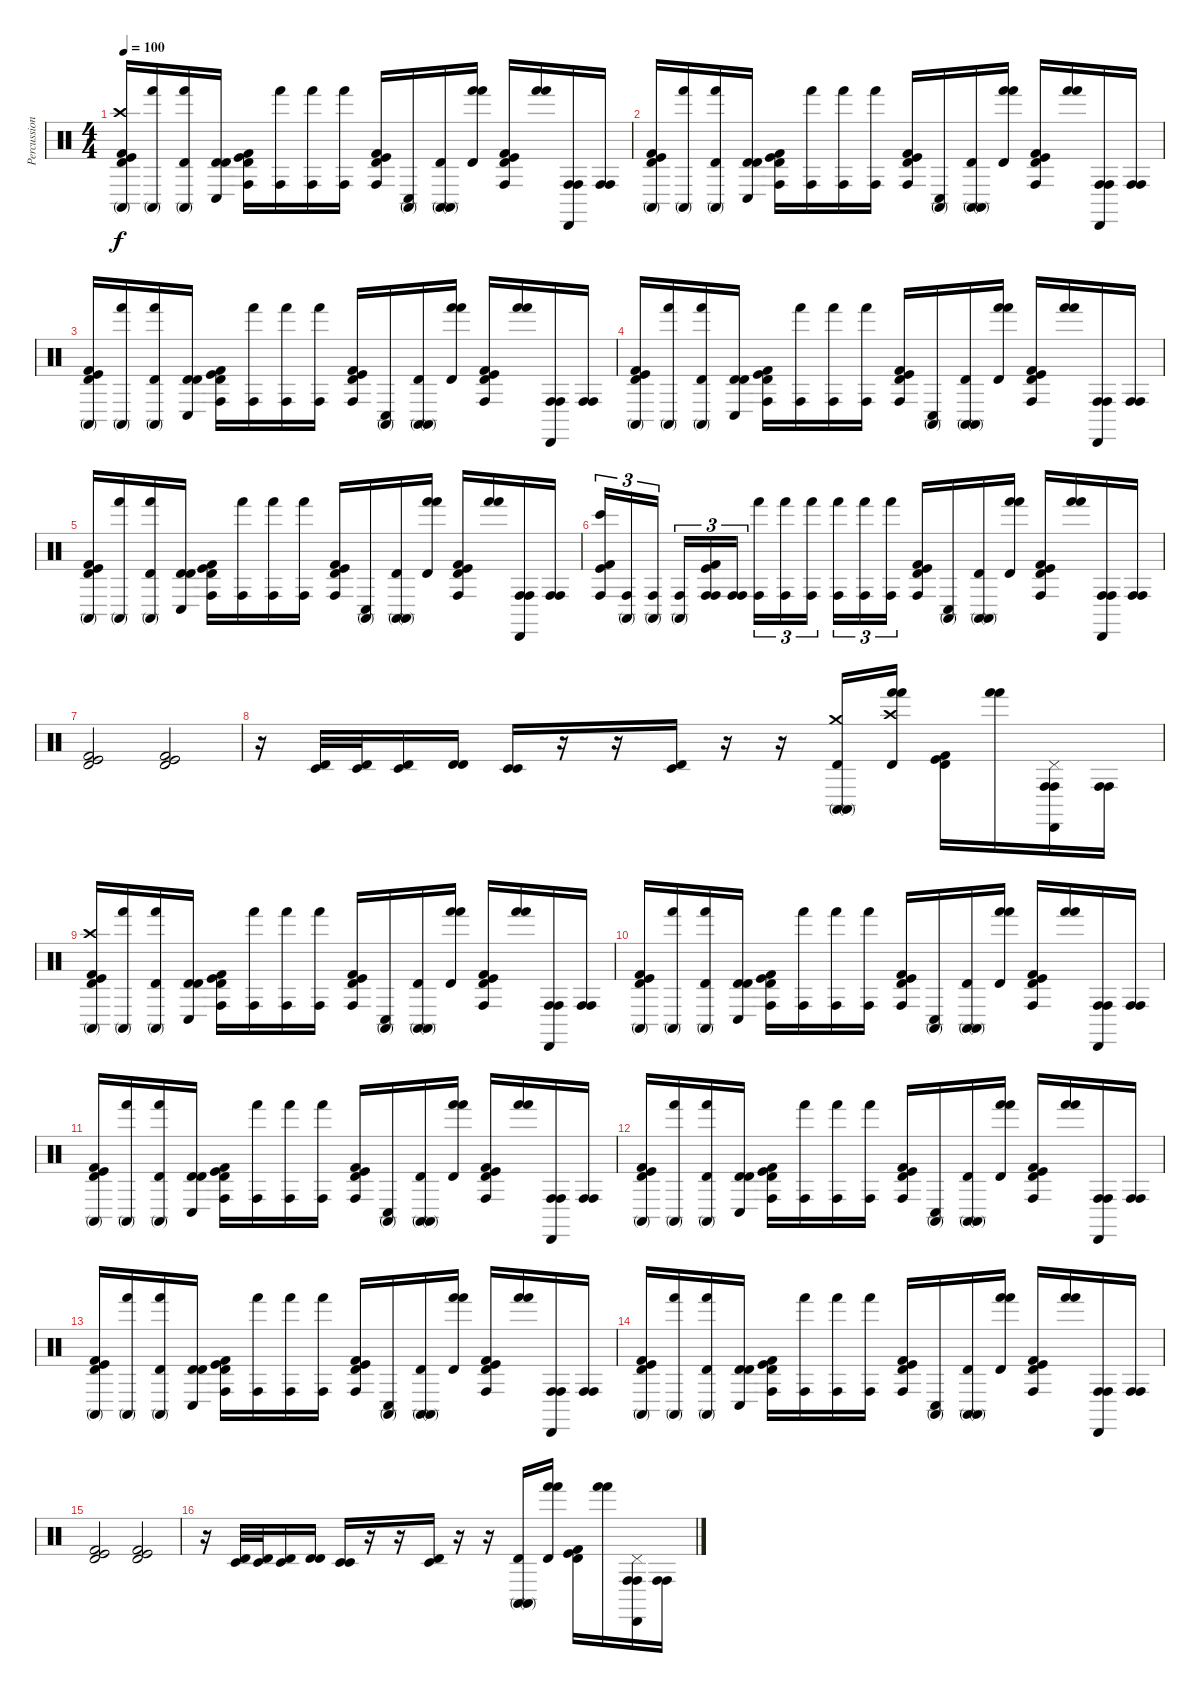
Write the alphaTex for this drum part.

\track ("Percussion" "Percussion") {instrument percussion}
\staff {score}
\articulation defaults
\ts (4 4)
\tempo 100
\clef neutral
\ks c
("Conga high (mute)" "Timbale high (hit)" "Crash high (hit)" "Kick (hit) 2" "Kick (hit)").16{dy f} ("Conga high (mute)" "Hand (hit)").16 ("Conga high (mute)" "Hand (hit)" "Timbale high (hit)").16 ("Conga low (hit)" "Timbale high (hit)" "Timbale high (hit)").16 ("Conga high (hit)" "Timbale high (hit)" "Kick (hit) 2" "Kick (hit)").16 ("Conga high (hit)" "Hand (hit)").16 ("Conga high (hit)" "Hand (hit)").16 ("Conga high (hit)" "Hand (hit)").16 ("Conga high (hit)" "Timbale high (hit)" "Kick (hit) 2" "Kick (hit)").16 ("Conga high (mute)" "Conga low (hit)").16 ("Conga high (mute)" "Conga high (mute)" "Timbale high (hit)").16 ("Hand (hit)" "Hand (hit)" "Timbale high (hit)").16 ("Conga high (hit)" "Timbale high (hit)" "Kick (hit) 2" "Kick (hit)").16 ("Hand (hit)" "Hand (hit)").16 ("Conga high (hit)" "Conga high (hit)" "Cabasa (hit)").16 ("Conga high (hit)" "Conga high (hit)").16 |
("Conga high (mute)" "Timbale high (hit)" "Kick (hit) 2" "Kick (hit)").16 ("Conga high (mute)" "Hand (hit)").16 ("Conga high (mute)" "Hand (hit)" "Timbale high (hit)").16 ("Conga low (hit)" "Timbale high (hit)" "Timbale high (hit)").16 ("Conga high (hit)" "Timbale high (hit)" "Kick (hit) 2" "Kick (hit)").16 ("Conga high (hit)" "Hand (hit)").16 ("Conga high (hit)" "Hand (hit)").16 ("Conga high (hit)" "Hand (hit)").16 ("Conga high (hit)" "Timbale high (hit)" "Kick (hit) 2" "Kick (hit)").16 ("Conga high (mute)" "Conga low (hit)").16 ("Conga high (mute)" "Conga high (mute)" "Timbale high (hit)").16 ("Hand (hit)" "Hand (hit)" "Timbale high (hit)").16 ("Conga high (hit)" "Timbale high (hit)" "Kick (hit) 2" "Kick (hit)").16 ("Hand (hit)" "Hand (hit)").16 ("Conga high (hit)" "Conga high (hit)" "Cabasa (hit)").16 ("Conga high (hit)" "Conga high (hit)").16 |
("Conga high (mute)" "Timbale high (hit)" "Kick (hit) 2" "Kick (hit)").16 ("Conga high (mute)" "Hand (hit)").16 ("Conga high (mute)" "Hand (hit)" "Timbale high (hit)").16 ("Conga low (hit)" "Timbale high (hit)" "Timbale high (hit)").16 ("Conga high (hit)" "Timbale high (hit)" "Kick (hit) 2" "Kick (hit)").16 ("Conga high (hit)" "Hand (hit)").16 ("Conga high (hit)" "Hand (hit)").16 ("Conga high (hit)" "Hand (hit)").16 ("Conga high (hit)" "Timbale high (hit)" "Kick (hit) 2" "Kick (hit)").16 ("Conga high (mute)" "Conga low (hit)").16 ("Conga high (mute)" "Conga high (mute)" "Timbale high (hit)").16 ("Hand (hit)" "Hand (hit)" "Timbale high (hit)").16 ("Conga high (hit)" "Timbale high (hit)" "Kick (hit) 2" "Kick (hit)").16 ("Hand (hit)" "Hand (hit)").16 ("Conga high (hit)" "Conga high (hit)" "Cabasa (hit)").16 ("Conga high (hit)" "Conga high (hit)").16 |
("Conga high (mute)" "Timbale high (hit)" "Kick (hit) 2" "Kick (hit)").16 ("Conga high (mute)" "Hand (hit)").16 ("Conga high (mute)" "Hand (hit)" "Timbale high (hit)").16 ("Conga low (hit)" "Timbale high (hit)" "Timbale high (hit)").16 ("Conga high (hit)" "Timbale high (hit)" "Kick (hit) 2" "Kick (hit)").16 ("Conga high (hit)" "Hand (hit)").16 ("Conga high (hit)" "Hand (hit)").16 ("Conga high (hit)" "Hand (hit)").16 ("Conga high (hit)" "Timbale high (hit)" "Kick (hit) 2" "Kick (hit)").16 ("Conga high (mute)" "Conga low (hit)").16 ("Conga high (mute)" "Conga high (mute)" "Timbale high (hit)").16 ("Hand (hit)" "Hand (hit)" "Timbale high (hit)").16 ("Conga high (hit)" "Timbale high (hit)" "Kick (hit) 2" "Kick (hit)").16 ("Hand (hit)" "Hand (hit)").16 ("Conga high (hit)" "Conga high (hit)" "Cabasa (hit)").16 ("Conga high (hit)" "Conga high (hit)").16 |
("Conga high (mute)" "Timbale high (hit)" "Kick (hit) 2" "Kick (hit)").16 ("Conga high (mute)" "Hand (hit)").16 ("Conga high (mute)" "Hand (hit)" "Timbale high (hit)").16 ("Conga low (hit)" "Timbale high (hit)" "Timbale high (hit)").16 ("Conga high (hit)" "Timbale high (hit)" "Kick (hit) 2" "Kick (hit)").16 ("Conga high (hit)" "Hand (hit)").16 ("Conga high (hit)" "Hand (hit)").16 ("Conga high (hit)" "Hand (hit)").16 ("Conga high (hit)" "Timbale high (hit)" "Kick (hit) 2" "Kick (hit)").16 ("Conga high (mute)" "Conga low (hit)").16 ("Conga high (mute)" "Conga high (mute)" "Timbale high (hit)").16 ("Hand (hit)" "Hand (hit)" "Timbale high (hit)").16 ("Conga high (hit)" "Timbale high (hit)" "Kick (hit) 2" "Kick (hit)").16 ("Hand (hit)" "Hand (hit)").16 ("Conga high (hit)" "Conga high (hit)" "Cabasa (hit)").16 ("Conga high (hit)" "Conga high (hit)").16 |
("Bongo High (hit)" "Conga high (hit)" "Kick (hit) 2" "Kick (hit)").16{tu (3 2)} ("Conga high (mute)" "Conga high (hit)").16{tu (3 2)} ("Conga high (mute)" "Conga high (hit)").16{tu (3 2)} ("Conga high (mute)" "Conga high (hit)").16{tu (3 2)} ("Conga high (hit)" "Conga high (hit)" "Kick (hit) 2" "Kick (hit)").16{tu (3 2)} ("Conga high (hit)" "Conga high (hit)").16{tu (3 2)} ("Conga high (hit)" "Hand (hit)").16{tu (3 2)} ("Conga high (hit)" "Hand (hit)").16{tu (3 2)} ("Conga high (hit)" "Hand (hit)").16{tu (3 2)} ("Conga high (hit)" "Hand (hit)").16{tu (3 2)} ("Conga high (hit)" "Hand (hit)").16{tu (3 2)} ("Conga high (hit)" "Hand (hit)").16{tu (3 2)} ("Conga high (hit)" "Timbale high (hit)" "Kick (hit) 2" "Kick (hit)").16 ("Conga high (mute)" "Conga low (hit)").16 ("Conga high (mute)" "Conga high (mute)" "Timbale high (hit)").16 ("Hand (hit)" "Hand (hit)" "Timbale high (hit)").16 ("Conga high (hit)" "Timbale high (hit)" "Kick (hit) 2" "Kick (hit)").16 ("Hand (hit)" "Hand (hit)").16 ("Conga high (hit)" "Conga high (hit)" "Cabasa (hit)").16 ("Conga high (hit)" "Conga high (hit)").16 |
("Timbale high (hit)" "Kick (hit) 2" "Kick (hit)").2 ("Timbale high (hit)" "Kick (hit) 2" "Kick (hit)").2 |
r.16 ("Timbale high (hit)" "Timbale low (hit)").32 ("Timbale high (hit)" "Timbale low (hit)").32 ("Timbale high (hit)" "Timbale low (hit)").16 ("Timbale high (hit)" "Timbale high (hit)").16 ("Timbale low (hit)" "Timbale low (hit)").16 r.16 r.16 ("Timbale high (hit)" "Timbale low (hit)").16 r.16 r.16 ("Conga high (mute)" "Conga high (mute)" "Timbale high (hit)" "Crash medium (hit)").16 ("Hand (hit)" "Hand (hit)" "Timbale high (hit)" "Crash high (hit)").16 ("Timbale high (hit)" "Kick (hit) 2" "Kick (hit)").16 ("Hand (hit)" "Hand (hit)").16 ("Conga high (hit)" "Conga high (hit)" "Cabasa (hit)" "Pedal Hi-Hat (hit)").16 ("Conga high (hit)" "Conga high (hit)").16 |
("Conga high (mute)" "Timbale high (hit)" "Crash high (hit)" "Kick (hit) 2" "Kick (hit)").16 ("Conga high (mute)" "Hand (hit)").16 ("Conga high (mute)" "Hand (hit)" "Timbale high (hit)").16 ("Conga low (hit)" "Timbale high (hit)" "Timbale high (hit)").16 ("Conga high (hit)" "Timbale high (hit)" "Kick (hit) 2" "Kick (hit)").16 ("Conga high (hit)" "Hand (hit)").16 ("Conga high (hit)" "Hand (hit)").16 ("Conga high (hit)" "Hand (hit)").16 ("Conga high (hit)" "Timbale high (hit)" "Kick (hit) 2" "Kick (hit)").16 ("Conga high (mute)" "Conga low (hit)").16 ("Conga high (mute)" "Conga high (mute)" "Timbale high (hit)").16 ("Hand (hit)" "Hand (hit)" "Timbale high (hit)").16 ("Conga high (hit)" "Timbale high (hit)" "Kick (hit) 2" "Kick (hit)").16 ("Hand (hit)" "Hand (hit)").16 ("Conga high (hit)" "Conga high (hit)" "Cabasa (hit)").16 ("Conga high (hit)" "Conga high (hit)").16 |
("Conga high (mute)" "Timbale high (hit)" "Kick (hit) 2" "Kick (hit)").16 ("Conga high (mute)" "Hand (hit)").16 ("Conga high (mute)" "Hand (hit)" "Timbale high (hit)").16 ("Conga low (hit)" "Timbale high (hit)" "Timbale high (hit)").16 ("Conga high (hit)" "Timbale high (hit)" "Kick (hit) 2" "Kick (hit)").16 ("Conga high (hit)" "Hand (hit)").16 ("Conga high (hit)" "Hand (hit)").16 ("Conga high (hit)" "Hand (hit)").16 ("Conga high (hit)" "Timbale high (hit)" "Kick (hit) 2" "Kick (hit)").16 ("Conga high (mute)" "Conga low (hit)").16 ("Conga high (mute)" "Conga high (mute)" "Timbale high (hit)").16 ("Hand (hit)" "Hand (hit)" "Timbale high (hit)").16 ("Conga high (hit)" "Timbale high (hit)" "Kick (hit) 2" "Kick (hit)").16 ("Hand (hit)" "Hand (hit)").16 ("Conga high (hit)" "Conga high (hit)" "Cabasa (hit)").16 ("Conga high (hit)" "Conga high (hit)").16 |
("Conga high (mute)" "Timbale high (hit)" "Kick (hit) 2" "Kick (hit)").16 ("Conga high (mute)" "Hand (hit)").16 ("Conga high (mute)" "Hand (hit)" "Timbale high (hit)").16 ("Conga low (hit)" "Timbale high (hit)" "Timbale high (hit)").16 ("Conga high (hit)" "Timbale high (hit)" "Kick (hit) 2" "Kick (hit)").16 ("Conga high (hit)" "Hand (hit)").16 ("Conga high (hit)" "Hand (hit)").16 ("Conga high (hit)" "Hand (hit)").16 ("Conga high (hit)" "Timbale high (hit)" "Kick (hit) 2" "Kick (hit)").16 ("Conga high (mute)" "Conga low (hit)").16 ("Conga high (mute)" "Conga high (mute)" "Timbale high (hit)").16 ("Hand (hit)" "Hand (hit)" "Timbale high (hit)").16 ("Conga high (hit)" "Timbale high (hit)" "Kick (hit) 2" "Kick (hit)").16 ("Hand (hit)" "Hand (hit)").16 ("Conga high (hit)" "Conga high (hit)" "Cabasa (hit)").16 ("Conga high (hit)" "Conga high (hit)").16 |
("Conga high (mute)" "Timbale high (hit)" "Kick (hit) 2" "Kick (hit)").16 ("Conga high (mute)" "Hand (hit)").16 ("Conga high (mute)" "Hand (hit)" "Timbale high (hit)").16 ("Conga low (hit)" "Timbale high (hit)" "Timbale high (hit)").16 ("Conga high (hit)" "Timbale high (hit)" "Kick (hit) 2" "Kick (hit)").16 ("Conga high (hit)" "Hand (hit)").16 ("Conga high (hit)" "Hand (hit)").16 ("Conga high (hit)" "Hand (hit)").16 ("Conga high (hit)" "Timbale high (hit)" "Kick (hit) 2" "Kick (hit)").16 ("Conga high (mute)" "Conga low (hit)").16 ("Conga high (mute)" "Conga high (mute)" "Timbale high (hit)").16 ("Hand (hit)" "Hand (hit)" "Timbale high (hit)").16 ("Conga high (hit)" "Timbale high (hit)" "Kick (hit) 2" "Kick (hit)").16 ("Hand (hit)" "Hand (hit)").16 ("Conga high (hit)" "Conga high (hit)" "Cabasa (hit)").16 ("Conga high (hit)" "Conga high (hit)").16 |
("Conga high (mute)" "Timbale high (hit)" "Kick (hit) 2" "Kick (hit)").16 ("Conga high (mute)" "Hand (hit)").16 ("Conga high (mute)" "Hand (hit)" "Timbale high (hit)").16 ("Conga low (hit)" "Timbale high (hit)" "Timbale high (hit)").16 ("Conga high (hit)" "Timbale high (hit)" "Kick (hit) 2" "Kick (hit)").16 ("Conga high (hit)" "Hand (hit)").16 ("Conga high (hit)" "Hand (hit)").16 ("Conga high (hit)" "Hand (hit)").16 ("Conga high (hit)" "Timbale high (hit)" "Kick (hit) 2" "Kick (hit)").16 ("Conga high (mute)" "Conga low (hit)").16 ("Conga high (mute)" "Conga high (mute)" "Timbale high (hit)").16 ("Hand (hit)" "Hand (hit)" "Timbale high (hit)").16 ("Conga high (hit)" "Timbale high (hit)" "Kick (hit) 2" "Kick (hit)").16 ("Hand (hit)" "Hand (hit)").16 ("Conga high (hit)" "Conga high (hit)" "Cabasa (hit)").16 ("Conga high (hit)" "Conga high (hit)").16 |
("Conga high (mute)" "Timbale high (hit)" "Kick (hit) 2" "Kick (hit)").16 ("Conga high (mute)" "Hand (hit)").16 ("Conga high (mute)" "Hand (hit)" "Timbale high (hit)").16 ("Conga low (hit)" "Timbale high (hit)" "Timbale high (hit)").16 ("Conga high (hit)" "Timbale high (hit)" "Kick (hit) 2" "Kick (hit)").16 ("Conga high (hit)" "Hand (hit)").16 ("Conga high (hit)" "Hand (hit)").16 ("Conga high (hit)" "Hand (hit)").16 ("Conga high (hit)" "Timbale high (hit)" "Kick (hit) 2" "Kick (hit)").16 ("Conga high (mute)" "Conga low (hit)").16 ("Conga high (mute)" "Conga high (mute)" "Timbale high (hit)").16 ("Hand (hit)" "Hand (hit)" "Timbale high (hit)").16 ("Conga high (hit)" "Timbale high (hit)" "Kick (hit) 2" "Kick (hit)").16 ("Hand (hit)" "Hand (hit)").16 ("Conga high (hit)" "Conga high (hit)" "Cabasa (hit)").16 ("Conga high (hit)" "Conga high (hit)").16 |
("Timbale high (hit)" "Kick (hit) 2" "Kick (hit)").2 ("Timbale high (hit)" "Kick (hit) 2" "Kick (hit)").2 |
r.16 ("Timbale high (hit)" "Timbale low (hit)").32 ("Timbale high (hit)" "Timbale low (hit)").32 ("Timbale high (hit)" "Timbale low (hit)").16 ("Timbale high (hit)" "Timbale high (hit)").16 ("Timbale low (hit)" "Timbale low (hit)").16 r.16 r.16 ("Timbale high (hit)" "Timbale low (hit)").16 r.16 r.16 ("Conga high (mute)" "Conga high (mute)" "Timbale high (hit)").16 ("Hand (hit)" "Hand (hit)" "Timbale high (hit)").16 ("Timbale high (hit)" "Kick (hit) 2" "Kick (hit)").16 ("Hand (hit)" "Hand (hit)").16 ("Conga high (hit)" "Conga high (hit)" "Cabasa (hit)" "Pedal Hi-Hat (hit)").16 ("Conga high (hit)" "Conga high (hit)").16
